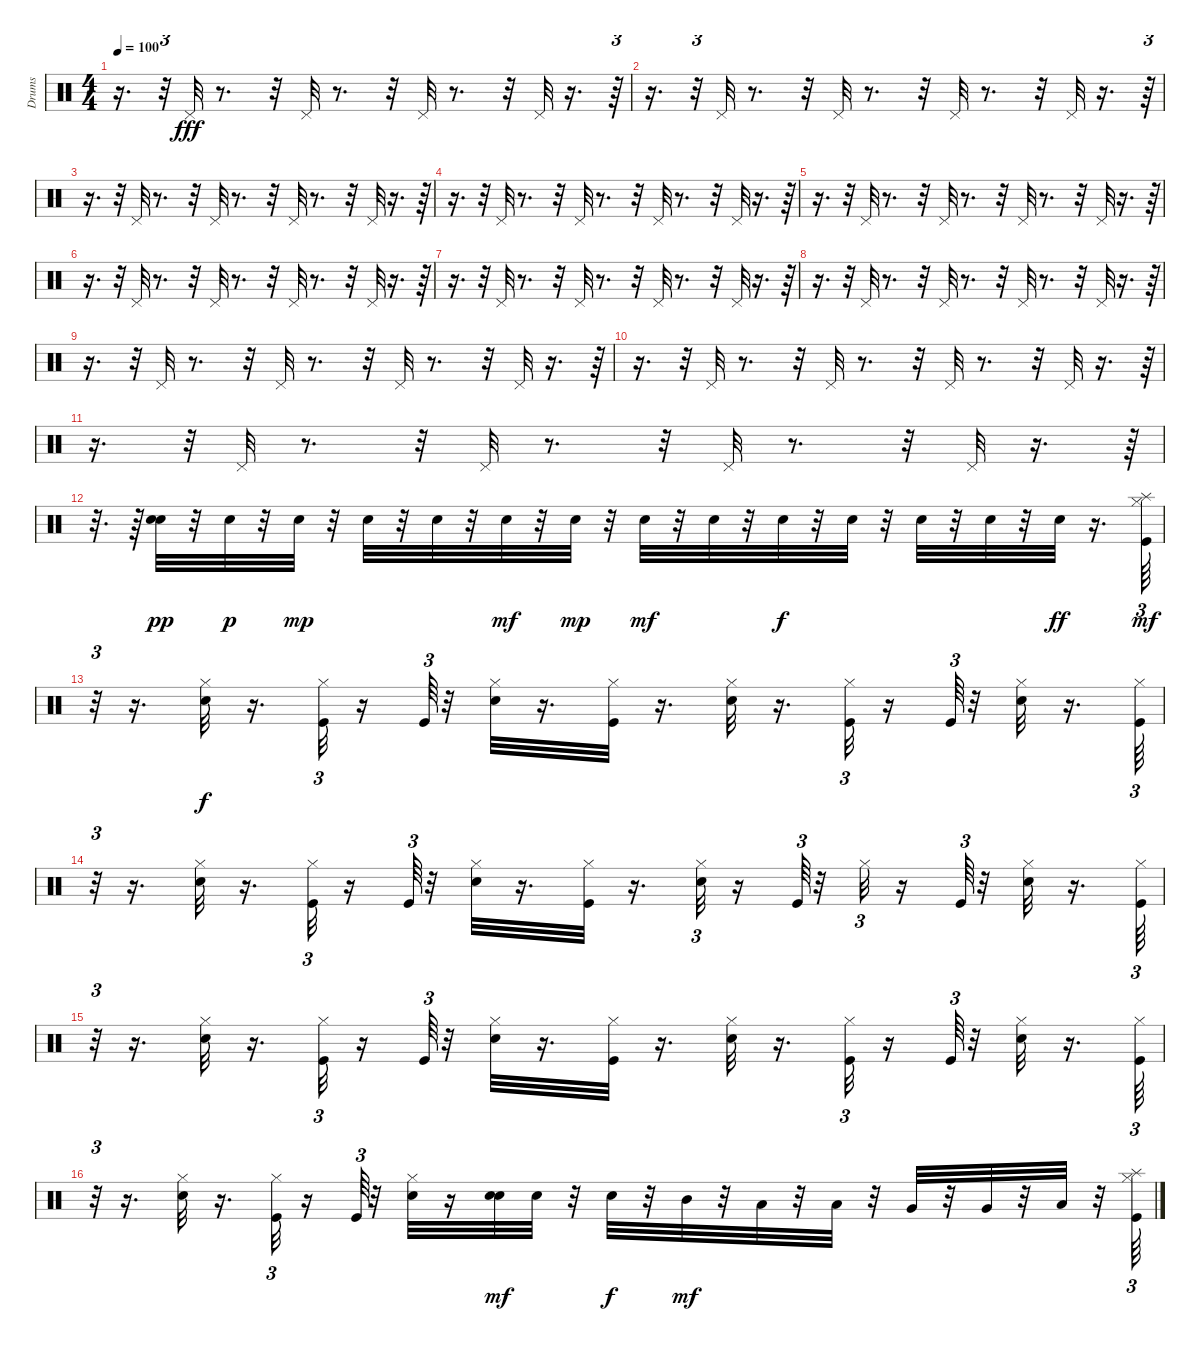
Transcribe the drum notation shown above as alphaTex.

\track ("Drums" "Drums") {instrument percussion}
\staff {score}
\articulation defaults
\ts (4 4)
\tempo 100
\clef neutral
\ks c
r.16{d dy mp} r.32{tu (3 2)} "Pedal Hi-Hat (hit)".32{dy fff} r.8{d} r.32 "Pedal Hi-Hat (hit)".32 r.8{d} r.32 "Pedal Hi-Hat (hit)".32 r.8{d} r.32 "Pedal Hi-Hat (hit)".32 r.16{d} r.64{tu (3 2)} |
r.16{d} r.32{tu (3 2)} "Pedal Hi-Hat (hit)".32 r.8{d} r.32 "Pedal Hi-Hat (hit)".32 r.8{d} r.32 "Pedal Hi-Hat (hit)".32 r.8{d} r.32 "Pedal Hi-Hat (hit)".32 r.16{d} r.64{tu (3 2)} |
r.16{d} r.32{tu (3 2)} "Pedal Hi-Hat (hit)".32 r.8{d} r.32 "Pedal Hi-Hat (hit)".32 r.8{d} r.32 "Pedal Hi-Hat (hit)".32 r.8{d} r.32 "Pedal Hi-Hat (hit)".32 r.16{d} r.64{tu (3 2)} |
r.16{d} r.32{tu (3 2)} "Pedal Hi-Hat (hit)".32 r.8{d} r.32 "Pedal Hi-Hat (hit)".32 r.8{d} r.32 "Pedal Hi-Hat (hit)".32 r.8{d} r.32 "Pedal Hi-Hat (hit)".32 r.16{d} r.64{tu (3 2)} |
r.16{d} r.32{tu (3 2)} "Pedal Hi-Hat (hit)".32 r.8{d} r.32 "Pedal Hi-Hat (hit)".32 r.8{d} r.32 "Pedal Hi-Hat (hit)".32 r.8{d} r.32 "Pedal Hi-Hat (hit)".32 r.16{d} r.64{tu (3 2)} |
r.16{d} r.32{tu (3 2)} "Pedal Hi-Hat (hit)".32 r.8{d} r.32 "Pedal Hi-Hat (hit)".32 r.8{d} r.32 "Pedal Hi-Hat (hit)".32 r.8{d} r.32 "Pedal Hi-Hat (hit)".32 r.16{d} r.64{tu (3 2)} |
r.16{d} r.32{tu (3 2)} "Pedal Hi-Hat (hit)".32 r.8{d} r.32 "Pedal Hi-Hat (hit)".32 r.8{d} r.32 "Pedal Hi-Hat (hit)".32 r.8{d} r.32 "Pedal Hi-Hat (hit)".32 r.16{d} r.64{tu (3 2)} |
r.16{d} r.32{tu (3 2)} "Pedal Hi-Hat (hit)".32 r.8{d} r.32 "Pedal Hi-Hat (hit)".32 r.8{d} r.32 "Pedal Hi-Hat (hit)".32 r.8{d} r.32 "Pedal Hi-Hat (hit)".32 r.16{d} r.64{tu (3 2)} |
r.16{d} r.32{tu (3 2)} "Pedal Hi-Hat (hit)".32 r.8{d} r.32 "Pedal Hi-Hat (hit)".32 r.8{d} r.32 "Pedal Hi-Hat (hit)".32 r.8{d} r.32 "Pedal Hi-Hat (hit)".32 r.16{d} r.64{tu (3 2)} |
r.16{d} r.32{tu (3 2)} "Pedal Hi-Hat (hit)".32 r.8{d} r.32 "Pedal Hi-Hat (hit)".32 r.8{d} r.32 "Pedal Hi-Hat (hit)".32 r.8{d} r.32 "Pedal Hi-Hat (hit)".32 r.16{d} r.64{tu (3 2)} |
r.16{d} r.32{tu (3 2)} "Pedal Hi-Hat (hit)".32 r.8{d} r.32 "Pedal Hi-Hat (hit)".32 r.8{d} r.32 "Pedal Hi-Hat (hit)".32 r.8{d} r.32 "Pedal Hi-Hat (hit)".32 r.16{d} r.64{tu (3 2)} |
r.32{d} r.64 ("Snare (hit) 2" "Snare (hit) 2").32{dy pp} r.32 "Snare (hit) 2".32{dy p} r.32 "Snare (hit) 2".32{dy mp} r.32 "Snare (hit) 2".32 r.32 "Snare (hit) 2".32 r.32 "Snare (hit) 2".32{dy mf} r.32 "Snare (hit) 2".32{dy mp} r.32 "Snare (hit) 2".32{dy mf} r.32 "Snare (hit) 2".32 r.32 "Snare (hit) 2".32{dy f} r.32 "Snare (hit) 2".32 r.32 "Snare (hit) 2".32 r.32 "Snare (hit) 2".32 r.32 "Snare (hit) 2".32{dy ff} r.16{d} ("Kick (hit)" "Splash (hit)" "Hi-Hat (closed)").64{tu (3 2) dy mf} |
r.32{tu (3 2)} r.16{d} ("Snare (hit) 2" "Hi-Hat (closed)").32{dy f} r.16{d} ("Kick (hit)" "Hi-Hat (closed)").32{tu (3 2)} r.16 "Kick (hit)".64{tu (3 2)} r.32 ("Snare (hit) 2" "Hi-Hat (closed)").32 r.16{d} ("Kick (hit)" "Hi-Hat (closed)").32 r.16{d} ("Snare (hit) 2" "Hi-Hat (closed)").32 r.16{d} ("Kick (hit)" "Hi-Hat (closed)").32{tu (3 2)} r.16 "Kick (hit)".64{tu (3 2)} r.32 ("Snare (hit) 2" "Hi-Hat (closed)").32 r.16{d} ("Kick (hit)" "Hi-Hat (closed)").64{tu (3 2)} |
r.32{tu (3 2)} r.16{d} ("Snare (hit) 2" "Hi-Hat (closed)").32 r.16{d} ("Kick (hit)" "Hi-Hat (closed)").32{tu (3 2)} r.16 "Kick (hit)".64{tu (3 2)} r.32 ("Snare (hit) 2" "Hi-Hat (closed)").32 r.16{d} ("Kick (hit)" "Hi-Hat (closed)").32 r.16{d} ("Snare (hit) 2" "Hi-Hat (closed)").32{tu (3 2)} r.16 "Kick (hit)".64{tu (3 2)} r.32 "Hi-Hat (closed)".32{tu (3 2)} r.16 "Kick (hit)".64{tu (3 2)} r.32 ("Snare (hit) 2" "Hi-Hat (closed)").32 r.16{d} ("Kick (hit)" "Hi-Hat (closed)").64{tu (3 2)} |
r.32{tu (3 2)} r.16{d} ("Snare (hit) 2" "Hi-Hat (closed)").32 r.16{d} ("Kick (hit)" "Hi-Hat (closed)").32{tu (3 2)} r.16 "Kick (hit)".64{tu (3 2)} r.32 ("Snare (hit) 2" "Hi-Hat (closed)").32 r.16{d} ("Kick (hit)" "Hi-Hat (closed)").32 r.16{d} ("Snare (hit) 2" "Hi-Hat (closed)").32 r.16{d} ("Kick (hit)" "Hi-Hat (closed)").32{tu (3 2)} r.16 "Kick (hit)".64{tu (3 2)} r.32 ("Snare (hit) 2" "Hi-Hat (closed)").32 r.16{d} ("Kick (hit)" "Hi-Hat (closed)").64{tu (3 2)} |
r.32{tu (3 2)} r.16{d} ("Snare (hit) 2" "Hi-Hat (closed)").32 r.16{d} ("Kick (hit)" "Hi-Hat (closed)").32{tu (3 2)} r.16 "Kick (hit)".64{tu (3 2)} r.32 ("Snare (hit) 2" "Hi-Hat (closed)").32 r.16 ("Snare (hit) 2" "Snare (hit) 2").32{dy mf} "Snare (hit) 2".32 r.32 "Snare (hit) 2".32{dy f} r.32 "Mid Tom (hit)".32{dy mf} r.32 "Low Tom (hit)".32 r.32 "Low Tom (hit)".32 r.32 "Very Low Tom (hit)".32 r.32 "Very Low Tom (hit)".32 r.32 "Low Floor Tom (hit)".32 r.32 ("Kick (hit)" "Hi-Hat (closed)" "Splash (hit)").64{tu (3 2)}
